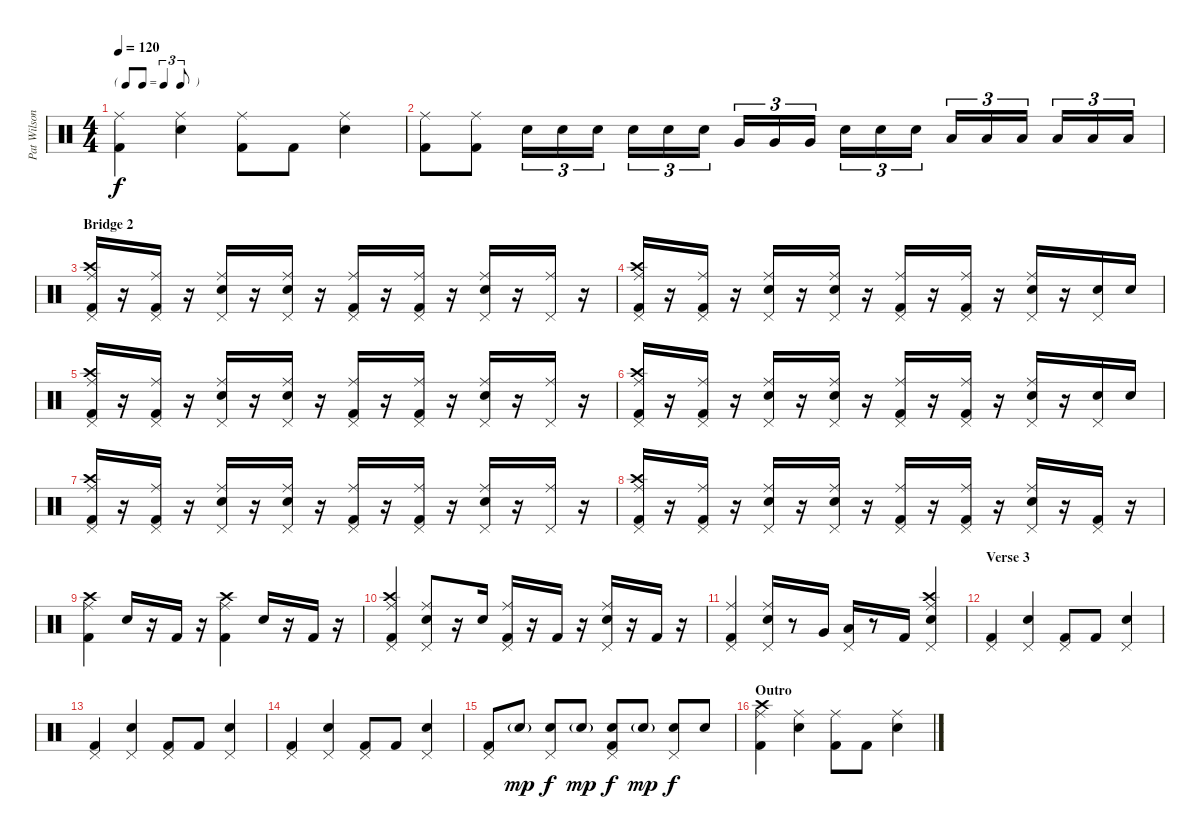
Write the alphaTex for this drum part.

\track ("Pat Wilson - Drums" "Pat Wilson") {instrument percussion}
\staff {score}
\articulation defaults
\ts (4 4)
\tf triplet8th
\tempo 120
\clef neutral
\ks c
("Ride (middle)" "Kick (hit) 2").4{dy f} ("Ride (middle)" "Electric Snare (hit)").4 ("Ride (middle)" "Kick (hit) 2").8 "Kick (hit) 2".8 ("Ride (middle)" "Electric Snare (hit)").4 |
("Ride (middle)" "Kick (hit) 2").8 ("Ride (middle)" "Kick (hit) 2").8 "Electric Snare (hit)".16{tu (3 2)} "Electric Snare (hit)".16{tu (3 2)} "Electric Snare (hit)".16{tu (3 2)} "Electric Snare (hit)".16{tu (3 2)} "Electric Snare (hit)".16{tu (3 2)} "Electric Snare (hit)".16{tu (3 2)} "Very Low Tom (hit)".16{tu (3 2)} "Very Low Tom (hit)".16{tu (3 2)} "Very Low Tom (hit)".16{tu (3 2)} "Electric Snare (hit)".16{tu (3 2)} "Electric Snare (hit)".16{tu (3 2)} "Electric Snare (hit)".16{tu (3 2)} "Low Tom (hit)".16{tu (3 2)} "Low Tom (hit)".16{tu (3 2)} "Low Tom (hit)".16{tu (3 2)} "Low Tom (hit)".16{tu (3 2)} "Low Tom (hit)".16{tu (3 2)} "Low Tom (hit)".16{tu (3 2)} |
\section ("" "Bridge 2")
("Ride (middle)" "Kick (hit) 2" "Crash high (hit)" "Pedal Hi-Hat (hit)").16 r.16 ("Ride (middle)" "Kick (hit) 2" "Pedal Hi-Hat (hit)").16 r.16 ("Ride (middle)" "Electric Snare (hit)" "Pedal Hi-Hat (hit)").16 r.16 ("Ride (middle)" "Electric Snare (hit)" "Pedal Hi-Hat (hit)").16 r.16 ("Ride (middle)" "Kick (hit) 2" "Pedal Hi-Hat (hit)").16 r.16 ("Ride (middle)" "Kick (hit) 2" "Pedal Hi-Hat (hit)").16 r.16 ("Ride (middle)" "Electric Snare (hit)" "Pedal Hi-Hat (hit)").16 r.16 ("Ride (middle)" "Pedal Hi-Hat (hit)").16 r.16 |
("Ride (middle)" "Kick (hit) 2" "Crash high (hit)" "Pedal Hi-Hat (hit)").16 r.16 ("Ride (middle)" "Kick (hit) 2" "Pedal Hi-Hat (hit)").16 r.16 ("Ride (middle)" "Electric Snare (hit)" "Pedal Hi-Hat (hit)").16 r.16 ("Ride (middle)" "Electric Snare (hit)" "Pedal Hi-Hat (hit)").16 r.16 ("Ride (middle)" "Kick (hit) 2" "Pedal Hi-Hat (hit)").16 r.16 ("Ride (middle)" "Kick (hit) 2" "Pedal Hi-Hat (hit)").16 r.16 ("Ride (middle)" "Electric Snare (hit)" "Pedal Hi-Hat (hit)").16 r.16 ("Electric Snare (hit)" "Pedal Hi-Hat (hit)").16 "Electric Snare (hit)".16 |
("Ride (middle)" "Kick (hit) 2" "Crash high (hit)" "Pedal Hi-Hat (hit)").16 r.16 ("Ride (middle)" "Kick (hit) 2" "Pedal Hi-Hat (hit)").16 r.16 ("Ride (middle)" "Electric Snare (hit)" "Pedal Hi-Hat (hit)").16 r.16 ("Ride (middle)" "Electric Snare (hit)" "Pedal Hi-Hat (hit)").16 r.16 ("Ride (middle)" "Kick (hit) 2" "Pedal Hi-Hat (hit)").16 r.16 ("Ride (middle)" "Kick (hit) 2" "Pedal Hi-Hat (hit)").16 r.16 ("Ride (middle)" "Electric Snare (hit)" "Pedal Hi-Hat (hit)").16 r.16 ("Ride (middle)" "Pedal Hi-Hat (hit)").16 r.16 |
("Ride (middle)" "Kick (hit) 2" "Crash high (hit)" "Pedal Hi-Hat (hit)").16 r.16 ("Ride (middle)" "Kick (hit) 2" "Pedal Hi-Hat (hit)").16 r.16 ("Ride (middle)" "Electric Snare (hit)" "Pedal Hi-Hat (hit)").16 r.16 ("Ride (middle)" "Electric Snare (hit)" "Pedal Hi-Hat (hit)").16 r.16 ("Ride (middle)" "Kick (hit) 2" "Pedal Hi-Hat (hit)").16 r.16 ("Ride (middle)" "Kick (hit) 2" "Pedal Hi-Hat (hit)").16 r.16 ("Ride (middle)" "Electric Snare (hit)" "Pedal Hi-Hat (hit)").16 r.16 ("Electric Snare (hit)" "Pedal Hi-Hat (hit)").16 "Electric Snare (hit)".16 |
("Ride (middle)" "Kick (hit) 2" "Crash high (hit)" "Pedal Hi-Hat (hit)").16 r.16 ("Ride (middle)" "Kick (hit) 2" "Pedal Hi-Hat (hit)").16 r.16 ("Ride (middle)" "Electric Snare (hit)" "Pedal Hi-Hat (hit)").16 r.16 ("Ride (middle)" "Electric Snare (hit)" "Pedal Hi-Hat (hit)").16 r.16 ("Ride (middle)" "Kick (hit) 2" "Pedal Hi-Hat (hit)").16 r.16 ("Ride (middle)" "Kick (hit) 2" "Pedal Hi-Hat (hit)").16 r.16 ("Ride (middle)" "Electric Snare (hit)" "Pedal Hi-Hat (hit)").16 r.16 ("Ride (middle)" "Pedal Hi-Hat (hit)").16 r.16 |
("Ride (middle)" "Kick (hit) 2" "Crash high (hit)" "Pedal Hi-Hat (hit)").16 r.16 ("Ride (middle)" "Kick (hit) 2" "Pedal Hi-Hat (hit)").16 r.16 ("Ride (middle)" "Electric Snare (hit)" "Pedal Hi-Hat (hit)").16 r.16 ("Ride (middle)" "Electric Snare (hit)" "Pedal Hi-Hat (hit)").16 r.16 ("Ride (middle)" "Kick (hit) 2" "Pedal Hi-Hat (hit)").16 r.16 ("Ride (middle)" "Kick (hit) 2" "Pedal Hi-Hat (hit)").16 r.16 ("Ride (middle)" "Electric Snare (hit)" "Pedal Hi-Hat (hit)").16 r.16 ("Kick (hit) 2" "Pedal Hi-Hat (hit)").16 r.16 |
("Ride (middle)" "Kick (hit) 2" "Crash high (hit)").4 "Electric Snare (hit)".16 r.16 "Kick (hit) 2".16 r.16 ("Ride (middle)" "Kick (hit) 2" "Crash high (hit)").4 "Electric Snare (hit)".16 r.16 "Kick (hit) 2".16 r.16 |
("Ride (middle)" "Kick (hit) 2" "Crash high (hit)" "Pedal Hi-Hat (hit)").4 ("Ride (middle)" "Electric Snare (hit)" "Pedal Hi-Hat (hit)").8 r.16 "Electric Snare (hit)".16 ("Ride (middle)" "Kick (hit) 2" "Pedal Hi-Hat (hit)").16 r.16 "Kick (hit) 2".16 r.16 ("Ride (middle)" "Electric Snare (hit)" "Pedal Hi-Hat (hit)").16 r.16 "Kick (hit) 2".16 r.16 |
("Ride (middle)" "Kick (hit) 2" "Pedal Hi-Hat (hit)").4 ("Ride (middle)" "Electric Snare (hit)" "Pedal Hi-Hat (hit)").16 r.8 "Very Low Tom (hit)".16 ("Low Tom (hit)" "Pedal Hi-Hat (hit)").16 r.8 "Kick (hit) 2".16 ("Ride (middle)" "Electric Snare (hit)" "Crash high (hit)" "Pedal Hi-Hat (hit)").4 |
\section ("" "Verse 3")
("Pedal Hi-Hat (hit)" "Kick (hit) 2").4 ("Pedal Hi-Hat (hit)" "Electric Snare (hit)").4 ("Pedal Hi-Hat (hit)" "Kick (hit) 2").8 "Kick (hit) 2".8 ("Pedal Hi-Hat (hit)" "Electric Snare (hit)").4 |
("Pedal Hi-Hat (hit)" "Kick (hit) 2").4 ("Pedal Hi-Hat (hit)" "Electric Snare (hit)").4 ("Pedal Hi-Hat (hit)" "Kick (hit) 2").8 "Kick (hit) 2".8 ("Pedal Hi-Hat (hit)" "Electric Snare (hit)").4 |
("Pedal Hi-Hat (hit)" "Kick (hit) 2").4 ("Pedal Hi-Hat (hit)" "Electric Snare (hit)").4 ("Pedal Hi-Hat (hit)" "Kick (hit) 2").8 "Kick (hit) 2".8 ("Pedal Hi-Hat (hit)" "Electric Snare (hit)").4 |
("Pedal Hi-Hat (hit)" "Kick (hit) 2").8 "Electric Snare (hit)"{g}.8{dy mp} ("Pedal Hi-Hat (hit)" "Electric Snare (hit)").8{dy f} "Electric Snare (hit)"{g}.8{dy mp} ("Pedal Hi-Hat (hit)" "Kick (hit) 2" "Electric Snare (hit)").8{dy f} "Electric Snare (hit)"{g}.8{dy mp} ("Pedal Hi-Hat (hit)" "Electric Snare (hit)").8{dy f} "Electric Snare (hit)".8 |
\section ("" "Outro")
("Ride (middle)" "Kick (hit) 2" "Crash high (hit)").4 ("Ride (middle)" "Electric Snare (hit)").4 ("Ride (middle)" "Kick (hit) 2").8 "Kick (hit) 2".8 ("Ride (middle)" "Electric Snare (hit)").4
